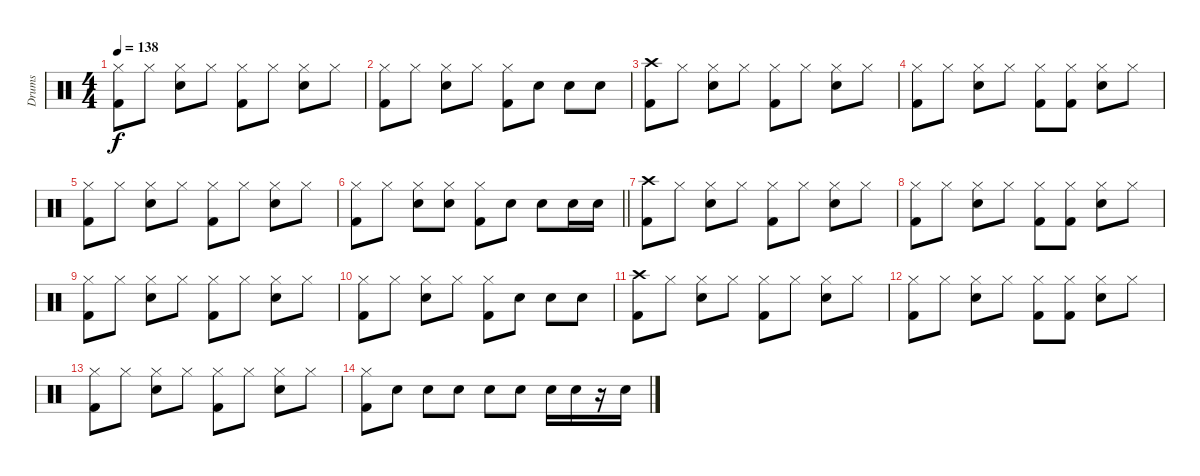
\track ("Drums" "Drums") {instrument percussion}
\staff {score}
\articulation defaults
\ts (4 4)
\tempo 138
\clef neutral
\ks c
("Hi-Hat (closed)" "Kick (hit) 2").8{dy f} "Hi-Hat (closed)".8 ("Hi-Hat (closed)" "Snare (hit) 2").8 "Hi-Hat (closed)".8 ("Hi-Hat (closed)" "Kick (hit) 2").8 "Hi-Hat (closed)".8 ("Hi-Hat (closed)" "Snare (hit) 2").8 "Hi-Hat (closed)".8 |
("Hi-Hat (closed)" "Kick (hit) 2").8 "Hi-Hat (closed)".8 ("Hi-Hat (closed)" "Snare (hit) 2").8 "Hi-Hat (closed)".8 ("Hi-Hat (closed)" "Kick (hit) 2").8 "Snare (hit) 2".8 "Snare (hit) 2".8 "Snare (hit) 2".8 |
("Crash high (hit)" "Kick (hit) 2").8 "Hi-Hat (closed)".8 ("Hi-Hat (closed)" "Snare (hit) 2").8 "Hi-Hat (closed)".8 ("Hi-Hat (closed)" "Kick (hit) 2").8 "Hi-Hat (closed)".8 ("Hi-Hat (closed)" "Snare (hit) 2").8 "Hi-Hat (closed)".8 |
("Hi-Hat (closed)" "Kick (hit) 2").8 "Hi-Hat (closed)".8 ("Hi-Hat (closed)" "Snare (hit) 2").8 "Hi-Hat (closed)".8 ("Hi-Hat (closed)" "Kick (hit) 2").8 ("Hi-Hat (closed)" "Kick (hit) 2").8 ("Hi-Hat (closed)" "Snare (hit) 2").8 "Hi-Hat (closed)".8 |
("Hi-Hat (closed)" "Kick (hit) 2").8 "Hi-Hat (closed)".8 ("Hi-Hat (closed)" "Snare (hit) 2").8 "Hi-Hat (closed)".8 ("Hi-Hat (closed)" "Kick (hit) 2").8 "Hi-Hat (closed)".8 ("Hi-Hat (closed)" "Snare (hit) 2").8 "Hi-Hat (closed)".8 |
\barLineRight lightlight
("Hi-Hat (closed)" "Kick (hit) 2").8 "Hi-Hat (closed)".8 ("Hi-Hat (closed)" "Snare (hit) 2").8 ("Hi-Hat (closed)" "Snare (hit) 2").8 ("Hi-Hat (closed)" "Kick (hit) 2").8 "Snare (hit) 2".8 "Snare (hit) 2".8 "Snare (hit) 2".16 "Snare (hit) 2".16 |
("Crash high (hit)" "Kick (hit) 2").8 "Hi-Hat (closed)".8 ("Hi-Hat (closed)" "Snare (hit) 2").8 "Hi-Hat (closed)".8 ("Hi-Hat (closed)" "Kick (hit) 2").8 "Hi-Hat (closed)".8 ("Hi-Hat (closed)" "Snare (hit) 2").8 "Hi-Hat (closed)".8 |
("Hi-Hat (closed)" "Kick (hit) 2").8 "Hi-Hat (closed)".8 ("Hi-Hat (closed)" "Snare (hit) 2").8 "Hi-Hat (closed)".8 ("Hi-Hat (closed)" "Kick (hit) 2").8 ("Hi-Hat (closed)" "Kick (hit) 2").8 ("Hi-Hat (closed)" "Snare (hit) 2").8 "Hi-Hat (closed)".8 |
("Hi-Hat (closed)" "Kick (hit) 2").8 "Hi-Hat (closed)".8 ("Hi-Hat (closed)" "Snare (hit) 2").8 "Hi-Hat (closed)".8 ("Hi-Hat (closed)" "Kick (hit) 2").8 "Hi-Hat (closed)".8 ("Hi-Hat (closed)" "Snare (hit) 2").8 "Hi-Hat (closed)".8 |
("Hi-Hat (closed)" "Kick (hit) 2").8 "Hi-Hat (closed)".8 ("Hi-Hat (closed)" "Snare (hit) 2").8 "Hi-Hat (closed)".8 ("Hi-Hat (closed)" "Kick (hit) 2").8 "Snare (hit) 2".8 "Snare (hit) 2".8 "Snare (hit) 2".8 |
("Crash high (hit)" "Kick (hit) 2").8 "Hi-Hat (closed)".8 ("Hi-Hat (closed)" "Snare (hit) 2").8 "Hi-Hat (closed)".8 ("Hi-Hat (closed)" "Kick (hit) 2").8 "Hi-Hat (closed)".8 ("Hi-Hat (closed)" "Snare (hit) 2").8 "Hi-Hat (closed)".8 |
("Hi-Hat (closed)" "Kick (hit) 2").8 "Hi-Hat (closed)".8 ("Hi-Hat (closed)" "Snare (hit) 2").8 "Hi-Hat (closed)".8 ("Hi-Hat (closed)" "Kick (hit) 2").8 ("Hi-Hat (closed)" "Kick (hit) 2").8 ("Hi-Hat (closed)" "Snare (hit) 2").8 "Hi-Hat (closed)".8 |
("Hi-Hat (closed)" "Kick (hit) 2").8 "Hi-Hat (closed)".8 ("Hi-Hat (closed)" "Snare (hit) 2").8 "Hi-Hat (closed)".8 ("Hi-Hat (closed)" "Kick (hit) 2").8 "Hi-Hat (closed)".8 ("Hi-Hat (closed)" "Snare (hit) 2").8 "Hi-Hat (closed)".8 |
("Hi-Hat (closed)" "Kick (hit) 2").8 "Snare (hit) 2".8 "Snare (hit) 2".8 "Snare (hit) 2".8 "Snare (hit) 2".8 "Snare (hit) 2".8 "Snare (hit) 2".16 "Snare (hit) 2".16 r.16 "Snare (hit) 2".16
